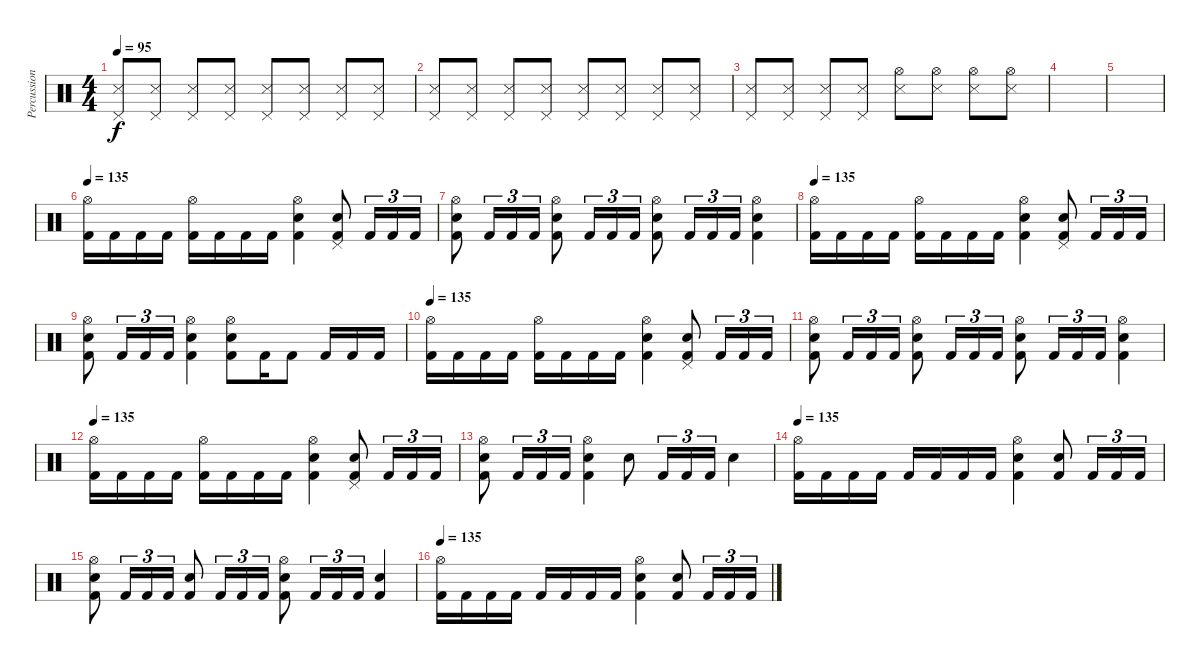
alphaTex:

\track ("Percussion" "Percussion") {instrument percussion}
\staff {score}
\articulation defaults
\ts (4 4)
\tempo 95
\clef neutral
\ks c
("Pedal Hi-Hat (hit)" "Metronome (hit)").8{dy f} ("Pedal Hi-Hat (hit)" "Metronome (hit)").8 ("Pedal Hi-Hat (hit)" "Metronome (hit)").8 ("Pedal Hi-Hat (hit)" "Metronome (hit)").8 ("Pedal Hi-Hat (hit)" "Metronome (hit)").8 ("Pedal Hi-Hat (hit)" "Metronome (hit)").8 ("Pedal Hi-Hat (hit)" "Metronome (hit)").8 ("Pedal Hi-Hat (hit)" "Metronome (hit)").8 |
("Pedal Hi-Hat (hit)" "Metronome (hit)").8 ("Pedal Hi-Hat (hit)" "Metronome (hit)").8 ("Pedal Hi-Hat (hit)" "Metronome (hit)").8 ("Pedal Hi-Hat (hit)" "Metronome (hit)").8 ("Pedal Hi-Hat (hit)" "Metronome (hit)").8 ("Pedal Hi-Hat (hit)" "Metronome (hit)").8 ("Pedal Hi-Hat (hit)" "Metronome (hit)").8 ("Pedal Hi-Hat (hit)" "Metronome (hit)").8 |
("Pedal Hi-Hat (hit)" "Metronome (hit)").8 ("Pedal Hi-Hat (hit)" "Metronome (hit)").8 ("Pedal Hi-Hat (hit)" "Metronome (hit)").8 ("Pedal Hi-Hat (hit)" "Metronome (hit)").8 ("Hi-Hat (open)" "Metronome (hit)").8 ("Hi-Hat (open)" "Metronome (hit)").8 ("Hi-Hat (open)" "Metronome (hit)").8 ("Hi-Hat (open)" "Metronome (hit)").8 |
|
|
\tempo 135
("Hi-Hat (open)" "Kick (hit) 2").16 "Kick (hit) 2".16 "Kick (hit) 2".16 "Kick (hit) 2".16 ("Hi-Hat (open)" "Kick (hit) 2").16 "Kick (hit) 2".16 "Kick (hit) 2".16 "Kick (hit) 2".16 ("Hi-Hat (open)" "Electric Snare (hit)" "Kick (hit) 2").4 ("Pedal Hi-Hat (hit)" "Electric Snare (hit)" "Kick (hit) 2").8 "Kick (hit) 2".16{tu (3 2)} "Kick (hit) 2".16{tu (3 2)} "Kick (hit) 2".16{tu (3 2)} |
("Hi-Hat (open)" "Electric Snare (hit)" "Kick (hit) 2").8 "Kick (hit) 2".16{tu (3 2)} "Kick (hit) 2".16{tu (3 2)} "Kick (hit) 2".16{tu (3 2)} ("Hi-Hat (open)" "Electric Snare (hit)" "Kick (hit) 2").8 "Kick (hit) 2".16{tu (3 2)} "Kick (hit) 2".16{tu (3 2)} "Kick (hit) 2".16{tu (3 2)} ("Hi-Hat (open)" "Electric Snare (hit)" "Kick (hit) 2").8 "Kick (hit) 2".16{tu (3 2)} "Kick (hit) 2".16{tu (3 2)} "Kick (hit) 2".16{tu (3 2)} ("Hi-Hat (open)" "Electric Snare (hit)" "Kick (hit) 2").4 |
\tempo 135
("Hi-Hat (open)" "Kick (hit) 2").16 "Kick (hit) 2".16 "Kick (hit) 2".16 "Kick (hit) 2".16 ("Hi-Hat (open)" "Kick (hit) 2").16 "Kick (hit) 2".16 "Kick (hit) 2".16 "Kick (hit) 2".16 ("Hi-Hat (open)" "Electric Snare (hit)" "Kick (hit) 2").4 ("Pedal Hi-Hat (hit)" "Electric Snare (hit)" "Kick (hit) 2").8 "Kick (hit) 2".16{tu (3 2)} "Kick (hit) 2".16{tu (3 2)} "Kick (hit) 2".16{tu (3 2)} |
("Hi-Hat (open)" "Electric Snare (hit)" "Kick (hit) 2").8 "Kick (hit) 2".16{tu (3 2)} "Kick (hit) 2".16{tu (3 2)} "Kick (hit) 2".16{tu (3 2)} ("Hi-Hat (open)" "Electric Snare (hit)" "Kick (hit) 2").4 ("Hi-Hat (open)" "Electric Snare (hit)" "Kick (hit) 2").8 "Kick (hit) 2".16 "Kick (hit) 2".8 "Kick (hit) 2".16 "Kick (hit) 2".16 "Kick (hit) 2".16 |
\tempo 135
("Hi-Hat (open)" "Kick (hit) 2").16 "Kick (hit) 2".16 "Kick (hit) 2".16 "Kick (hit) 2".16 ("Hi-Hat (open)" "Kick (hit) 2").16 "Kick (hit) 2".16 "Kick (hit) 2".16 "Kick (hit) 2".16 ("Hi-Hat (open)" "Electric Snare (hit)" "Kick (hit) 2").4 ("Pedal Hi-Hat (hit)" "Electric Snare (hit)" "Kick (hit) 2").8 "Kick (hit) 2".16{tu (3 2)} "Kick (hit) 2".16{tu (3 2)} "Kick (hit) 2".16{tu (3 2)} |
("Hi-Hat (open)" "Electric Snare (hit)" "Kick (hit) 2").8 "Kick (hit) 2".16{tu (3 2)} "Kick (hit) 2".16{tu (3 2)} "Kick (hit) 2".16{tu (3 2)} ("Hi-Hat (open)" "Electric Snare (hit)" "Kick (hit) 2").8 "Kick (hit) 2".16{tu (3 2)} "Kick (hit) 2".16{tu (3 2)} "Kick (hit) 2".16{tu (3 2)} ("Hi-Hat (open)" "Electric Snare (hit)" "Kick (hit) 2").8 "Kick (hit) 2".16{tu (3 2)} "Kick (hit) 2".16{tu (3 2)} "Kick (hit) 2".16{tu (3 2)} ("Hi-Hat (open)" "Electric Snare (hit)" "Kick (hit) 2").4 |
\tempo 135
("Hi-Hat (open)" "Kick (hit) 2").16 "Kick (hit) 2".16 "Kick (hit) 2".16 "Kick (hit) 2".16 ("Hi-Hat (open)" "Kick (hit) 2").16 "Kick (hit) 2".16 "Kick (hit) 2".16 "Kick (hit) 2".16 ("Hi-Hat (open)" "Electric Snare (hit)" "Kick (hit) 2").4 ("Pedal Hi-Hat (hit)" "Electric Snare (hit)" "Kick (hit) 2").8 "Kick (hit) 2".16{tu (3 2)} "Kick (hit) 2".16{tu (3 2)} "Kick (hit) 2".16{tu (3 2)} |
("Hi-Hat (open)" "Electric Snare (hit)" "Kick (hit) 2").8 "Kick (hit) 2".16{tu (3 2)} "Kick (hit) 2".16{tu (3 2)} "Kick (hit) 2".16{tu (3 2)} ("Hi-Hat (open)" "Electric Snare (hit)" "Kick (hit) 2").4 "Electric Snare (hit)".8 "Kick (hit) 2".16{tu (3 2)} "Kick (hit) 2".16{tu (3 2)} "Kick (hit) 2".16{tu (3 2)} "Electric Snare (hit)".4 |
\tempo 135
("Hi-Hat (open)" "Kick (hit) 2").16 "Kick (hit) 2".16 "Kick (hit) 2".16 "Kick (hit) 2".16 "Kick (hit) 2".16 "Kick (hit) 2".16 "Kick (hit) 2".16 "Kick (hit) 2".16 ("Hi-Hat (open)" "Electric Snare (hit)" "Kick (hit) 2").4 ("Electric Snare (hit)" "Kick (hit) 2").8 "Kick (hit) 2".16{tu (3 2)} "Kick (hit) 2".16{tu (3 2)} "Kick (hit) 2".16{tu (3 2)} |
("Hi-Hat (open)" "Electric Snare (hit)" "Kick (hit) 2").8 "Kick (hit) 2".16{tu (3 2)} "Kick (hit) 2".16{tu (3 2)} "Kick (hit) 2".16{tu (3 2)} ("Electric Snare (hit)" "Kick (hit) 2").8 "Kick (hit) 2".16{tu (3 2)} "Kick (hit) 2".16{tu (3 2)} "Kick (hit) 2".16{tu (3 2)} ("Hi-Hat (open)" "Electric Snare (hit)" "Kick (hit) 2").8 "Kick (hit) 2".16{tu (3 2)} "Kick (hit) 2".16{tu (3 2)} "Kick (hit) 2".16{tu (3 2)} ("Electric Snare (hit)" "Kick (hit) 2").4 |
\tempo 135
("Hi-Hat (open)" "Kick (hit) 2").16 "Kick (hit) 2".16 "Kick (hit) 2".16 "Kick (hit) 2".16 "Kick (hit) 2".16 "Kick (hit) 2".16 "Kick (hit) 2".16 "Kick (hit) 2".16 ("Hi-Hat (open)" "Electric Snare (hit)" "Kick (hit) 2").4 ("Electric Snare (hit)" "Kick (hit) 2").8 "Kick (hit) 2".16{tu (3 2)} "Kick (hit) 2".16{tu (3 2)} "Kick (hit) 2".16{tu (3 2)}
